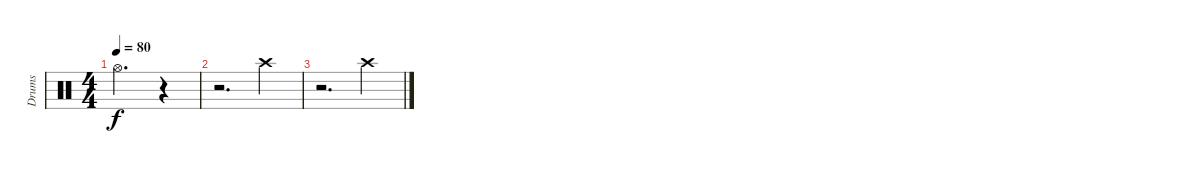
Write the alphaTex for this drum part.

\track ("Drums" "Drums") {instrument percussion}
\staff {score}
\articulation defaults
\ts (4 4)
\tempo 80
\clef neutral
\ks c "Hi-Hat (open)".2{d dy f}
r.4 |
r.2{d volume 0} "Crash high (hit)".4{volume 11} |
r.2{d volume 0} "Crash high (hit)".4{volume 11}
